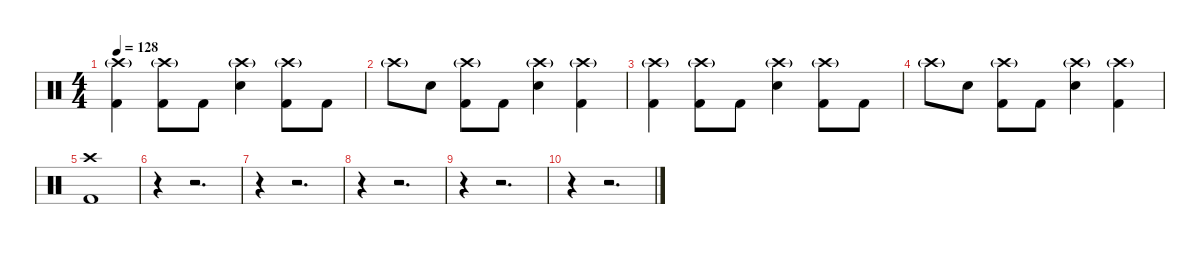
\defaultSystemsLayout 4
\hideDynamics
\bracketExtendMode nobrackets
\singleTrackTrackNamePolicy hidden
\multiTrackTrackNamePolicy hidden
\otherSystemsTrackNameOrientation horizontal
\track ("Gene Hoglan" "drm.") {instrument percussion}
\staff {score}
\articulation defaults
\ts (4 4)
\tempo 128
\clef neutral
\ks c
("Crash high (hit)"{g} "Kick (hit) 2").4{dy f beam Down} ("Crash high (hit)"{g} "Kick (hit) 2").8{beam Down} "Kick (hit) 2".8{beam Down} ("Crash high (hit)"{g} "Snare (hit) 2").4{beam Down} ("Crash high (hit)"{g} "Kick (hit) 2").8{beam Down} "Kick (hit) 2".8{beam Down} |
"Crash high (hit)"{g}.8{dy mf beam Down} "Snare (hit) 2".8{dy f beam Down} ("Crash high (hit)"{g} "Kick (hit) 2").8{beam Down} "Kick (hit) 2".8{beam Down} ("Crash high (hit)"{g} "Snare (hit) 2").4{beam Down} ("Crash high (hit)"{g} "Kick (hit) 2").4{beam Down} |
("Crash high (hit)"{g} "Kick (hit) 2").4{beam Down} ("Crash high (hit)"{g} "Kick (hit) 2").8{beam Down} "Kick (hit) 2".8{beam Down} ("Crash high (hit)"{g} "Snare (hit) 2").4{beam Down} ("Crash high (hit)"{g} "Kick (hit) 2").8{beam Down} "Kick (hit) 2".8{beam Down} |
"Crash high (hit)"{g}.8{dy mf beam Down} "Snare (hit) 2".8{dy f beam Down} ("Crash high (hit)"{g} "Kick (hit) 2").8{beam Down} "Kick (hit) 2".8{beam Down} ("Crash high (hit)"{g} "Snare (hit) 2").4{beam Down} ("Crash high (hit)"{g} "Kick (hit) 2").4{beam Down} |
("Crash high (hit)" "Kick (hit) 2").1{beam Down} |
r.4{beam Down} r.2{d beam Down} |
r.4{beam Down} r.2{d beam Down} |
r.4{beam Down} r.2{d beam Down} |
r.4{beam Down} r.2{d beam Down} |
r.4{beam Down} r.2{d beam Down}
